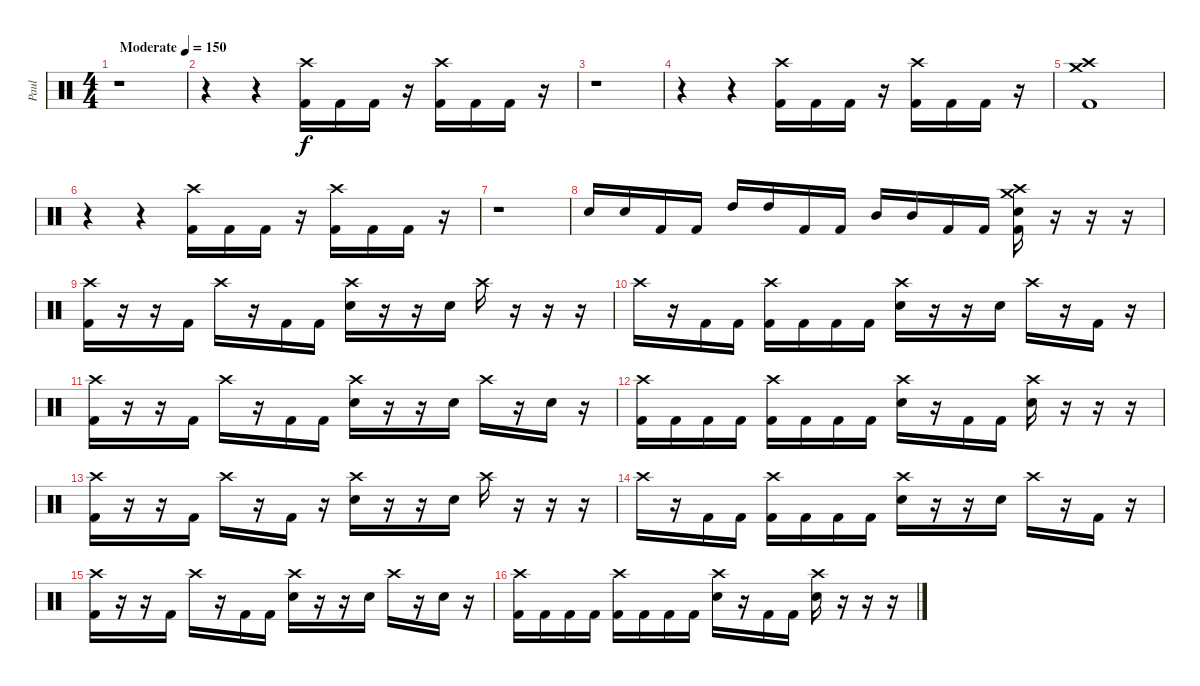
\track ("Paul" "Paul") {instrument percussion}
\staff {score}
\articulation defaults
\ts (4 4)
\tempo (150 "Moderate")
\clef neutral
\ks c
r.1{dy f} |
r.4 r.4 ("Crash high (hit)" "Kick (hit) 2").16 "Kick (hit) 2".16 "Kick (hit) 2".16 r.16 ("Crash high (hit)" "Kick (hit) 2").16 "Kick (hit) 2".16 "Kick (hit) 2".16 r.16 |
r.1 |
r.4 r.4 ("Crash high (hit)" "Kick (hit) 2").16 "Kick (hit) 2".16 "Kick (hit) 2".16 r.16 ("Crash high (hit)" "Kick (hit) 2").16 "Kick (hit) 2".16 "Kick (hit) 2".16 r.16 |
("Crash high (hit)" "Crash medium (hit)" "Kick (hit) 2").1 |
r.4 r.4 ("Crash high (hit)" "Kick (hit) 2").16 "Kick (hit) 2".16 "Kick (hit) 2".16 r.16 ("Crash high (hit)" "Kick (hit) 2").16 "Kick (hit) 2".16 "Kick (hit) 2".16 r.16 |
r.1 |
"Electric Snare (hit)".16 "Electric Snare (hit)".16 "Kick (hit) 2".16 "Kick (hit) 2".16 "High Tom (hit)".16 "High Tom (hit)".16 "Kick (hit) 2".16 "Kick (hit) 2".16 "Mid Tom (hit)".16 "Mid Tom (hit)".16 "Kick (hit) 2".16 "Kick (hit) 2".16 ("Crash high (hit)" "Crash medium (hit)" "Electric Snare (hit)" "Kick (hit) 2").16 r.16 r.16 r.16 |
("Crash high (hit)" "Kick (hit) 2").16 r.16 r.16 "Kick (hit) 2".16 "Crash high (hit)".16 r.16 "Kick (hit) 2".16 "Kick (hit) 2".16 ("Crash high (hit)" "Electric Snare (hit)").16 r.16 r.16 "Electric Snare (hit)".16 "Crash high (hit)".16 r.16 r.16 r.16 |
"Crash high (hit)".16 r.16 "Kick (hit) 2".16 "Kick (hit) 2".16 ("Crash high (hit)" "Kick (hit) 2").16 "Kick (hit) 2".16 "Kick (hit) 2".16 "Kick (hit) 2".16 ("Crash high (hit)" "Electric Snare (hit)").16 r.16 r.16 "Electric Snare (hit)".16 "Crash high (hit)".16 r.16 "Kick (hit) 2".16 r.16 |
("Crash high (hit)" "Kick (hit) 2").16 r.16 r.16 "Kick (hit) 2".16 "Crash high (hit)".16 r.16 "Kick (hit) 2".16 "Kick (hit) 2".16 ("Crash high (hit)" "Electric Snare (hit)").16 r.16 r.16 "Electric Snare (hit)".16 "Crash high (hit)".16 r.16 "Electric Snare (hit)".16 r.16 |
("Crash high (hit)" "Kick (hit) 2").16 "Kick (hit) 2".16 "Kick (hit) 2".16 "Kick (hit) 2".16 ("Crash high (hit)" "Kick (hit) 2").16 "Kick (hit) 2".16 "Kick (hit) 2".16 "Kick (hit) 2".16 ("Crash high (hit)" "Electric Snare (hit)").16 r.16 "Kick (hit) 2".16 "Kick (hit) 2".16 ("Crash high (hit)" "Electric Snare (hit)").16 r.16 r.16 r.16 |
("Crash high (hit)" "Kick (hit) 2").16 r.16 r.16 "Kick (hit) 2".16 "Crash high (hit)".16 r.16 "Kick (hit) 2".16 r.16 ("Crash high (hit)" "Electric Snare (hit)").16 r.16 r.16 "Electric Snare (hit)".16 "Crash high (hit)".16 r.16 r.16 r.16 |
"Crash high (hit)".16 r.16 "Kick (hit) 2".16 "Kick (hit) 2".16 ("Crash high (hit)" "Kick (hit) 2").16 "Kick (hit) 2".16 "Kick (hit) 2".16 "Kick (hit) 2".16 ("Crash high (hit)" "Electric Snare (hit)").16 r.16 r.16 "Electric Snare (hit)".16 "Crash high (hit)".16 r.16 "Kick (hit) 2".16 r.16 |
("Crash high (hit)" "Kick (hit) 2").16 r.16 r.16 "Kick (hit) 2".16 "Crash high (hit)".16 r.16 "Kick (hit) 2".16 "Kick (hit) 2".16 ("Crash high (hit)" "Electric Snare (hit)").16 r.16 r.16 "Electric Snare (hit)".16 "Crash high (hit)".16 r.16 "Electric Snare (hit)".16 r.16 |
("Crash high (hit)" "Kick (hit) 2").16 "Kick (hit) 2".16 "Kick (hit) 2".16 "Kick (hit) 2".16 ("Crash high (hit)" "Kick (hit) 2").16 "Kick (hit) 2".16 "Kick (hit) 2".16 "Kick (hit) 2".16 ("Crash high (hit)" "Electric Snare (hit)").16 r.16 "Kick (hit) 2".16 "Kick (hit) 2".16 ("Crash high (hit)" "Electric Snare (hit)").16 r.16 r.16 r.16
